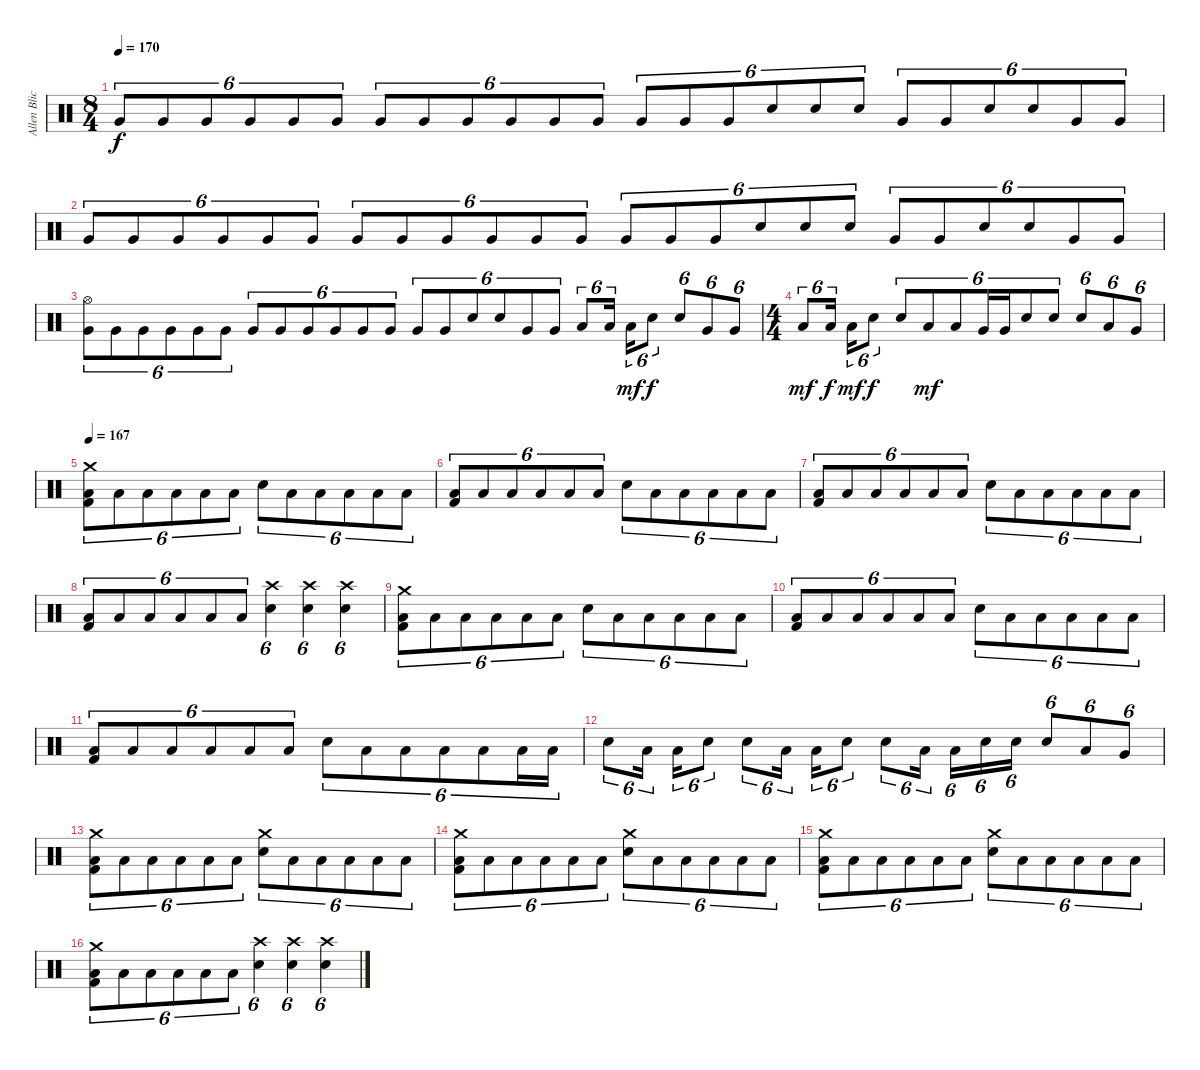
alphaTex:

\track ("Allen Blickle" "Allen Blic") {instrument percussion}
\staff {score}
\articulation defaults
\ts (8 4)
\tempo 170
\clef neutral
\ks c "Very Low Tom (hit)".8{tu (6 4) dy f} "Very Low Tom (hit)".8{tu (6 4)} "Very Low Tom (hit)".8{tu (6 4)} "Very Low Tom (hit)".8{tu (6 4)} "Very Low Tom (hit)".8{tu (6 4)} "Very Low Tom (hit)".8{tu (6 4)} "Very Low Tom (hit)".8{tu (6 4)} "Very Low Tom (hit)".8{tu (6 4)} "Very Low Tom (hit)".8{tu (6 4)} "Very Low Tom (hit)".8{tu (6 4)} "Very Low Tom (hit)".8{tu (6 4)} "Very Low Tom (hit)".8{tu (6 4)} "Very Low Tom (hit)".8{tu (6 4)} "Very Low Tom (hit)".8{tu (6 4)} "Very Low Tom (hit)".8{tu (6 4)} "Electric Snare (hit)".8{tu (6 4)} "Electric Snare (hit)".8{tu (6 4)} "Electric Snare (hit)".8{tu (6 4)} "Very Low Tom (hit)".8{tu (6 4)} "Very Low Tom (hit)".8{tu (6 4)} "Electric Snare (hit)".8{tu (6 4)} "Electric Snare (hit)".8{tu (6 4)} "Very Low Tom (hit)".8{tu (6 4)} "Very Low Tom (hit)".8{tu (6 4)}
|
"Very Low Tom (hit)".8{tu (6 4)} "Very Low Tom (hit)".8{tu (6 4)} "Very Low Tom (hit)".8{tu (6 4)} "Very Low Tom (hit)".8{tu (6 4)} "Very Low Tom (hit)".8{tu (6 4)} "Very Low Tom (hit)".8{tu (6 4)} "Very Low Tom (hit)".8{tu (6 4)} "Very Low Tom (hit)".8{tu (6 4)} "Very Low Tom (hit)".8{tu (6 4)} "Very Low Tom (hit)".8{tu (6 4)} "Very Low Tom (hit)".8{tu (6 4)} "Very Low Tom (hit)".8{tu (6 4)} "Very Low Tom (hit)".8{tu (6 4)} "Very Low Tom (hit)".8{tu (6 4)} "Very Low Tom (hit)".8{tu (6 4)} "Electric Snare (hit)".8{tu (6 4)} "Electric Snare (hit)".8{tu (6 4)} "Electric Snare (hit)".8{tu (6 4)} "Very Low Tom (hit)".8{tu (6 4)} "Very Low Tom (hit)".8{tu (6 4)} "Electric Snare (hit)".8{tu (6 4)} "Electric Snare (hit)".8{tu (6 4)} "Very Low Tom (hit)".8{tu (6 4)} "Very Low Tom (hit)".8{tu (6 4)} |
("Very Low Tom (hit)" "Hi-Hat (open)").8{tu (6 4)} "Very Low Tom (hit)".8{tu (6 4)} "Very Low Tom (hit)".8{tu (6 4)} "Very Low Tom (hit)".8{tu (6 4)} "Very Low Tom (hit)".8{tu (6 4)} "Very Low Tom (hit)".8{tu (6 4)} "Very Low Tom (hit)".8{tu (6 4)} "Very Low Tom (hit)".8{tu (6 4)} "Very Low Tom (hit)".8{tu (6 4)} "Very Low Tom (hit)".8{tu (6 4)} "Very Low Tom (hit)".8{tu (6 4)} "Very Low Tom (hit)".8{tu (6 4)} "Very Low Tom (hit)".8{tu (6 4)} "Very Low Tom (hit)".8{tu (6 4)} "Electric Snare (hit)".8{tu (6 4)} "Electric Snare (hit)".8{tu (6 4)} "Very Low Tom (hit)".8{tu (6 4)} "Very Low Tom (hit)".8{tu (6 4)} "Low Floor Tom (hit)".8{tu (6 4)} "Low Floor Tom (hit)".16{tu (6 4) beam splitsecondary} "Low Floor Tom (hit)".16{tu (6 4) dy mf} "Electric Snare (hit)".8{tu (6 4) dy f} "Electric Snare (hit)".8{tu (6 4)} "Very Low Tom (hit)".8{tu (6 4)} "Very Low Tom (hit)".8{tu (6 4)} |
\ts (4 4)
"Low Floor Tom (hit)".8{tu (6 4) dy mf} "Low Floor Tom (hit)".16{tu (6 4) dy f beam splitsecondary} "Low Floor Tom (hit)".16{tu (6 4) dy mf} "Electric Snare (hit)".8{tu (6 4) dy f} "Electric Snare (hit)".8{tu (6 4)} "Low Floor Tom (hit)".8{tu (6 4) dy mf} "Low Floor Tom (hit)".8{tu (6 4)} "Very Low Tom (hit)".16{tu (6 4)} "Very Low Tom (hit)".16{tu (6 4)} "Electric Snare (hit)".8{tu (6 4)} "Electric Snare (hit)".8{tu (6 4)} "Electric Snare (hit)".8{tu (6 4)} "Low Tom (hit)".8{tu (6 4)} "Very Low Tom (hit)".8{tu (6 4)} |
\tempo 167
("Low Floor Tom (hit)" "Kick (hit) 2" "Crash medium (hit)").8{tu (6 4)} "Low Floor Tom (hit)".8{tu (6 4)} "Low Floor Tom (hit)".8{tu (6 4)} "Low Floor Tom (hit)".8{tu (6 4)} "Low Floor Tom (hit)".8{tu (6 4)} "Low Floor Tom (hit)".8{tu (6 4)} "Electric Snare (hit)".8{tu (6 4)} "Low Floor Tom (hit)".8{tu (6 4)} "Low Floor Tom (hit)".8{tu (6 4)} "Low Floor Tom (hit)".8{tu (6 4)} "Low Floor Tom (hit)".8{tu (6 4)} "Low Floor Tom (hit)".8{tu (6 4)} |
("Low Floor Tom (hit)" "Kick (hit) 2").8{tu (6 4)} "Low Floor Tom (hit)".8{tu (6 4)} "Low Floor Tom (hit)".8{tu (6 4)} "Low Floor Tom (hit)".8{tu (6 4)} "Low Floor Tom (hit)".8{tu (6 4)} "Low Floor Tom (hit)".8{tu (6 4)} "Electric Snare (hit)".8{tu (6 4)} "Low Floor Tom (hit)".8{tu (6 4)} "Low Floor Tom (hit)".8{tu (6 4)} "Low Floor Tom (hit)".8{tu (6 4)} "Low Floor Tom (hit)".8{tu (6 4)} "Low Floor Tom (hit)".8{tu (6 4)} |
("Low Floor Tom (hit)" "Kick (hit) 2").8{tu (6 4)} "Low Floor Tom (hit)".8{tu (6 4)} "Low Floor Tom (hit)".8{tu (6 4)} "Low Floor Tom (hit)".8{tu (6 4)} "Low Floor Tom (hit)".8{tu (6 4)} "Low Floor Tom (hit)".8{tu (6 4)} "Electric Snare (hit)".8{tu (6 4)} "Low Floor Tom (hit)".8{tu (6 4)} "Low Floor Tom (hit)".8{tu (6 4)} "Low Floor Tom (hit)".8{tu (6 4)} "Low Floor Tom (hit)".8{tu (6 4)} "Low Floor Tom (hit)".8{tu (6 4)} |
("Low Floor Tom (hit)" "Kick (hit) 2").8{tu (6 4)} "Low Floor Tom (hit)".8{tu (6 4)} "Low Floor Tom (hit)".8{tu (6 4)} "Low Floor Tom (hit)".8{tu (6 4)} "Low Floor Tom (hit)".8{tu (6 4)} "Low Floor Tom (hit)".8{tu (6 4)} ("Electric Snare (hit)" "Crash high (hit)").4{tu (6 4)} ("Electric Snare (hit)" "Crash high (hit)").4{tu (6 4)} ("Electric Snare (hit)" "Crash high (hit)").4{tu (6 4)} |
("Low Floor Tom (hit)" "Kick (hit) 2" "Crash medium (hit)").8{tu (6 4)} "Low Floor Tom (hit)".8{tu (6 4)} "Low Floor Tom (hit)".8{tu (6 4)} "Low Floor Tom (hit)".8{tu (6 4)} "Low Floor Tom (hit)".8{tu (6 4)} "Low Floor Tom (hit)".8{tu (6 4)} "Electric Snare (hit)".8{tu (6 4)} "Low Floor Tom (hit)".8{tu (6 4)} "Low Floor Tom (hit)".8{tu (6 4)} "Low Floor Tom (hit)".8{tu (6 4)} "Low Floor Tom (hit)".8{tu (6 4)} "Low Floor Tom (hit)".8{tu (6 4)} |
("Low Floor Tom (hit)" "Kick (hit) 2").8{tu (6 4)} "Low Floor Tom (hit)".8{tu (6 4)} "Low Floor Tom (hit)".8{tu (6 4)} "Low Floor Tom (hit)".8{tu (6 4)} "Low Floor Tom (hit)".8{tu (6 4)} "Low Floor Tom (hit)".8{tu (6 4)} "Electric Snare (hit)".8{tu (6 4)} "Low Floor Tom (hit)".8{tu (6 4)} "Low Floor Tom (hit)".8{tu (6 4)} "Low Floor Tom (hit)".8{tu (6 4)} "Low Floor Tom (hit)".8{tu (6 4)} "Low Floor Tom (hit)".8{tu (6 4)} |
("Low Floor Tom (hit)" "Kick (hit) 2").8{tu (6 4)} "Low Floor Tom (hit)".8{tu (6 4)} "Low Floor Tom (hit)".8{tu (6 4)} "Low Floor Tom (hit)".8{tu (6 4)} "Low Floor Tom (hit)".8{tu (6 4)} "Low Floor Tom (hit)".8{tu (6 4)} "Electric Snare (hit)".8{tu (6 4)} "Low Floor Tom (hit)".8{tu (6 4)} "Low Floor Tom (hit)".8{tu (6 4)} "Low Floor Tom (hit)".8{tu (6 4)} "Low Floor Tom (hit)".8{tu (6 4)} "Low Floor Tom (hit)".16{tu (6 4)} "Low Floor Tom (hit)".16{tu (6 4)} |
"Electric Snare (hit)".8{tu (6 4)} "Low Floor Tom (hit)".16{tu (6 4) beam splitsecondary} "Low Floor Tom (hit)".16{tu (6 4)} "Electric Snare (hit)".8{tu (6 4)} "Electric Snare (hit)".8{tu (6 4)} "Low Floor Tom (hit)".16{tu (6 4) beam splitsecondary} "Low Floor Tom (hit)".16{tu (6 4)} "Electric Snare (hit)".8{tu (6 4)} "Electric Snare (hit)".8{tu (6 4)} "Low Floor Tom (hit)".16{tu (6 4) beam splitsecondary} "Low Floor Tom (hit)".16{tu (6 4)} "Electric Snare (hit)".16{tu (6 4)} "Electric Snare (hit)".16{tu (6 4)} "Electric Snare (hit)".8{tu (6 4)} "Low Tom (hit)".8{tu (6 4)} "Very Low Tom (hit)".8{tu (6 4)} |
("Low Floor Tom (hit)" "Kick (hit) 2" "Crash medium (hit)").8{tu (6 4)} "Low Floor Tom (hit)".8{tu (6 4)} "Low Floor Tom (hit)".8{tu (6 4)} "Low Floor Tom (hit)".8{tu (6 4)} "Low Floor Tom (hit)".8{tu (6 4)} "Low Floor Tom (hit)".8{tu (6 4)} ("Electric Snare (hit)" "Crash medium (hit)").8{tu (6 4)} "Low Floor Tom (hit)".8{tu (6 4)} "Low Floor Tom (hit)".8{tu (6 4)} "Low Floor Tom (hit)".8{tu (6 4)} "Low Floor Tom (hit)".8{tu (6 4)} "Low Floor Tom (hit)".8{tu (6 4)} |
("Low Floor Tom (hit)" "Kick (hit) 2" "Crash medium (hit)").8{tu (6 4)} "Low Floor Tom (hit)".8{tu (6 4)} "Low Floor Tom (hit)".8{tu (6 4)} "Low Floor Tom (hit)".8{tu (6 4)} "Low Floor Tom (hit)".8{tu (6 4)} "Low Floor Tom (hit)".8{tu (6 4)} ("Electric Snare (hit)" "Crash medium (hit)").8{tu (6 4)} "Low Floor Tom (hit)".8{tu (6 4)} "Low Floor Tom (hit)".8{tu (6 4)} "Low Floor Tom (hit)".8{tu (6 4)} "Low Floor Tom (hit)".8{tu (6 4)} "Low Floor Tom (hit)".8{tu (6 4)} |
("Low Floor Tom (hit)" "Kick (hit) 2" "Crash medium (hit)").8{tu (6 4)} "Low Floor Tom (hit)".8{tu (6 4)} "Low Floor Tom (hit)".8{tu (6 4)} "Low Floor Tom (hit)".8{tu (6 4)} "Low Floor Tom (hit)".8{tu (6 4)} "Low Floor Tom (hit)".8{tu (6 4)} ("Electric Snare (hit)" "Crash medium (hit)").8{tu (6 4)} "Low Floor Tom (hit)".8{tu (6 4)} "Low Floor Tom (hit)".8{tu (6 4)} "Low Floor Tom (hit)".8{tu (6 4)} "Low Floor Tom (hit)".8{tu (6 4)} "Low Floor Tom (hit)".8{tu (6 4)} |
("Low Floor Tom (hit)" "Kick (hit) 2" "Crash medium (hit)").8{tu (6 4)} "Low Floor Tom (hit)".8{tu (6 4)} "Low Floor Tom (hit)".8{tu (6 4)} "Low Floor Tom (hit)".8{tu (6 4)} "Low Floor Tom (hit)".8{tu (6 4)} "Low Floor Tom (hit)".8{tu (6 4)} ("Electric Snare (hit)" "Crash high (hit)").4{tu (6 4)} ("Electric Snare (hit)" "Crash high (hit)").4{tu (6 4)} ("Electric Snare (hit)" "Crash high (hit)").4{tu (6 4)}
